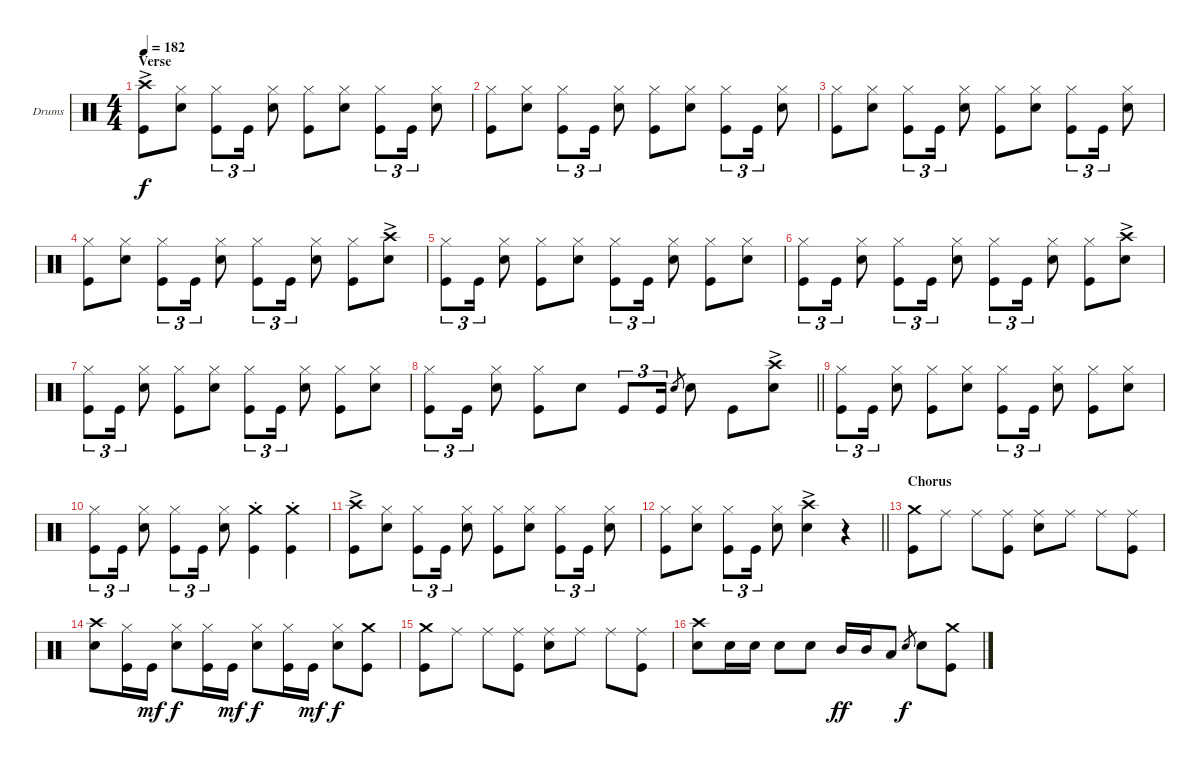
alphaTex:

\bracketExtendMode groupsimilarinstruments
\firstSystemTrackNameOrientation horizontal
\otherSystemsTrackNameOrientation horizontal
\track ("Drums" "Drums") {instrument percussion}
\staff {score}
\articulation defaults
\ts (4 4)
\section ("" "Verse")
\tempo 182
\clef neutral
\ks c
("Kick (hit)" "Crash high (hit)"{ac}).8{dy f} ("Snare (hit) 2" "Hi-Hat (closed)").8 ("Kick (hit)" "Hi-Hat (closed)").8{tu (3 2)} "Kick (hit)".16{tu (3 2)} ("Snare (hit) 2" "Hi-Hat (closed)").8 ("Kick (hit)" "Hi-Hat (closed)").8 ("Snare (hit) 2" "Hi-Hat (closed)").8 ("Kick (hit)" "Hi-Hat (closed)").8{tu (3 2)} "Kick (hit)".16{tu (3 2)} ("Snare (hit) 2" "Hi-Hat (closed)").8 |
("Kick (hit)" "Hi-Hat (closed)").8 ("Snare (hit) 2" "Hi-Hat (closed)").8 ("Kick (hit)" "Hi-Hat (closed)").8{tu (3 2)} "Kick (hit)".16{tu (3 2)} ("Snare (hit) 2" "Hi-Hat (closed)").8 ("Kick (hit)" "Hi-Hat (closed)").8 ("Snare (hit) 2" "Hi-Hat (closed)").8 ("Kick (hit)" "Hi-Hat (closed)").8{tu (3 2)} "Kick (hit)".16{tu (3 2)} ("Snare (hit) 2" "Hi-Hat (closed)").8 |
("Kick (hit)" "Hi-Hat (closed)").8 ("Snare (hit) 2" "Hi-Hat (closed)").8 ("Kick (hit)" "Hi-Hat (closed)").8{tu (3 2)} "Kick (hit)".16{tu (3 2)} ("Snare (hit) 2" "Hi-Hat (closed)").8 ("Kick (hit)" "Hi-Hat (closed)").8 ("Snare (hit) 2" "Hi-Hat (closed)").8 ("Kick (hit)" "Hi-Hat (closed)").8{tu (3 2)} "Kick (hit)".16{tu (3 2)} ("Snare (hit) 2" "Hi-Hat (closed)").8 |
("Kick (hit)" "Hi-Hat (closed)").8 ("Snare (hit) 2" "Hi-Hat (closed)").8 ("Kick (hit)" "Hi-Hat (closed)").8{tu (3 2)} "Kick (hit)".16{tu (3 2)} ("Snare (hit) 2" "Hi-Hat (closed)").8 ("Kick (hit)" "Hi-Hat (closed)").8{tu (3 2)} "Kick (hit)".16{tu (3 2)} ("Snare (hit) 2" "Hi-Hat (closed)").8 ("Kick (hit)" "Hi-Hat (closed)").8 ("Snare (hit) 2"{ac} "Crash high (hit)"{ac}).8 |
("Kick (hit)" "Hi-Hat (closed)").8{tu (3 2)} "Kick (hit)".16{tu (3 2)} ("Snare (hit) 2" "Hi-Hat (closed)").8 ("Kick (hit)" "Hi-Hat (closed)").8 ("Snare (hit) 2" "Hi-Hat (closed)").8 ("Kick (hit)" "Hi-Hat (closed)").8{tu (3 2)} "Kick (hit)".16{tu (3 2)} ("Snare (hit) 2" "Hi-Hat (closed)").8 ("Kick (hit)" "Hi-Hat (closed)").8 ("Snare (hit) 2" "Hi-Hat (closed)").8 |
("Kick (hit)" "Hi-Hat (closed)").8{tu (3 2)} "Kick (hit)".16{tu (3 2)} ("Snare (hit) 2" "Hi-Hat (closed)").8 ("Kick (hit)" "Hi-Hat (closed)").8{tu (3 2)} "Kick (hit)".16{tu (3 2)} ("Snare (hit) 2" "Hi-Hat (closed)").8 ("Kick (hit)" "Hi-Hat (closed)").8{tu (3 2)} "Kick (hit)".16{tu (3 2)} ("Snare (hit) 2" "Hi-Hat (closed)").8 ("Kick (hit)" "Hi-Hat (closed)").8 ("Snare (hit) 2"{ac} "Crash high (hit)"{ac}).8 |
("Kick (hit)" "Hi-Hat (closed)").8{tu (3 2)} "Kick (hit)".16{tu (3 2)} ("Snare (hit) 2" "Hi-Hat (closed)").8 ("Kick (hit)" "Hi-Hat (closed)").8 ("Snare (hit) 2" "Hi-Hat (closed)").8 ("Kick (hit)" "Hi-Hat (closed)").8{tu (3 2)} "Kick (hit)".16{tu (3 2)} ("Snare (hit) 2" "Hi-Hat (closed)").8 ("Kick (hit)" "Hi-Hat (closed)").8 ("Snare (hit) 2" "Hi-Hat (closed)").8 |
\barLineRight lightlight
("Kick (hit)" "Hi-Hat (closed)").8{tu (3 2)} "Kick (hit)".16{tu (3 2)} ("Snare (hit) 2" "Hi-Hat (closed)").8 ("Kick (hit)" "Hi-Hat (closed)").8 "Snare (hit) 2".8 "Kick (hit)".8{tu (3 2)} "Kick (hit)".16{tu (3 2)} "Snare (hit) 2".8{gr} "Snare (hit) 2".8 "Kick (hit)".8 ("Snare (hit) 2"{ac} "Crash high (hit)"{ac}).8 |
("Kick (hit)" "Hi-Hat (closed)").8{tu (3 2)} "Kick (hit)".16{tu (3 2)} ("Snare (hit) 2" "Hi-Hat (closed)").8 ("Kick (hit)" "Hi-Hat (closed)").8 ("Snare (hit) 2" "Hi-Hat (closed)").8 ("Kick (hit)" "Hi-Hat (closed)").8{tu (3 2)} "Kick (hit)".16{tu (3 2)} ("Snare (hit) 2" "Hi-Hat (closed)").8 ("Kick (hit)" "Hi-Hat (closed)").8 ("Snare (hit) 2" "Hi-Hat (closed)").8 |
("Kick (hit)" "Hi-Hat (closed)").8{tu (3 2)} "Kick (hit)".16{tu (3 2)} ("Snare (hit) 2" "Hi-Hat (closed)").8 ("Kick (hit)" "Hi-Hat (closed)").8{tu (3 2)} "Kick (hit)".16{tu (3 2)} ("Snare (hit) 2" "Hi-Hat (closed)").8 ("Kick (hit)"{st} "Crash medium (hit)"{st}).4 ("Kick (hit)"{st} "Crash medium (hit)"{st}).4 |
("Kick (hit)" "Crash high (hit)"{ac}).8 ("Snare (hit) 2" "Hi-Hat (closed)").8 ("Kick (hit)" "Hi-Hat (closed)").8{tu (3 2)} "Kick (hit)".16{tu (3 2)} ("Snare (hit) 2" "Hi-Hat (closed)").8 ("Kick (hit)" "Hi-Hat (closed)").8 ("Snare (hit) 2" "Hi-Hat (closed)").8 ("Kick (hit)" "Hi-Hat (closed)").8{tu (3 2)} "Kick (hit)".16{tu (3 2)} ("Snare (hit) 2" "Hi-Hat (closed)").8 |
\barLineRight lightlight
("Kick (hit)" "Hi-Hat (closed)").8 ("Snare (hit) 2" "Hi-Hat (closed)").8 ("Kick (hit)" "Hi-Hat (closed)").8{tu (3 2)} "Kick (hit)".16{tu (3 2)} ("Snare (hit) 2" "Hi-Hat (closed)").8 ("Snare (hit) 2"{ac} "Crash high (hit)"{ac}).4 r.4 |
\section ("" "Chorus")
("Kick (hit)" "Crash medium (hit)").8 "Ride (middle)".8 "Ride (middle)".8 ("Kick (hit)" "Ride (middle)").8 ("Snare (hit) 2" "Ride (middle)").8 "Ride (middle)".8 "Ride (middle)".8 ("Ride (middle)" "Kick (hit)").8 |
("Snare (hit) 2" "Crash high (hit)").8 ("Hi-Hat (closed)" "Kick (hit)").16 "Kick (hit)".16{dy mf} ("Snare (hit) 2" "Hi-Hat (closed)").8{dy f} ("Hi-Hat (closed)" "Kick (hit)").16 "Kick (hit)".16{dy mf} ("Snare (hit) 2" "Hi-Hat (closed)").8{dy f} ("Hi-Hat (closed)" "Kick (hit)").16 "Kick (hit)".16{dy mf} ("Snare (hit) 2" "Hi-Hat (closed)").8{dy f} ("Kick (hit)" "Crash medium (hit)").8 |
("Kick (hit)" "Crash medium (hit)").8 "Ride (middle)".8 "Ride (middle)".8 ("Kick (hit)" "Ride (middle)").8 ("Snare (hit) 2" "Ride (middle)").8 "Ride (middle)".8 "Ride (middle)".8 ("Ride (middle)" "Kick (hit)").8 |
("Snare (hit) 2" "Crash high (hit)").8 "Snare (hit) 2".16 "Snare (hit) 2".16 "Snare (hit) 2".8 "Snare (hit) 2".8 "Mid Tom (hit)".16{dy ff} "Mid Tom (hit)".16 "Low Tom (hit)".8 "Snare (hit) 2".8{gr dy f} "Snare (hit) 2".8 ("Kick (hit)" "Crash medium (hit)").8
